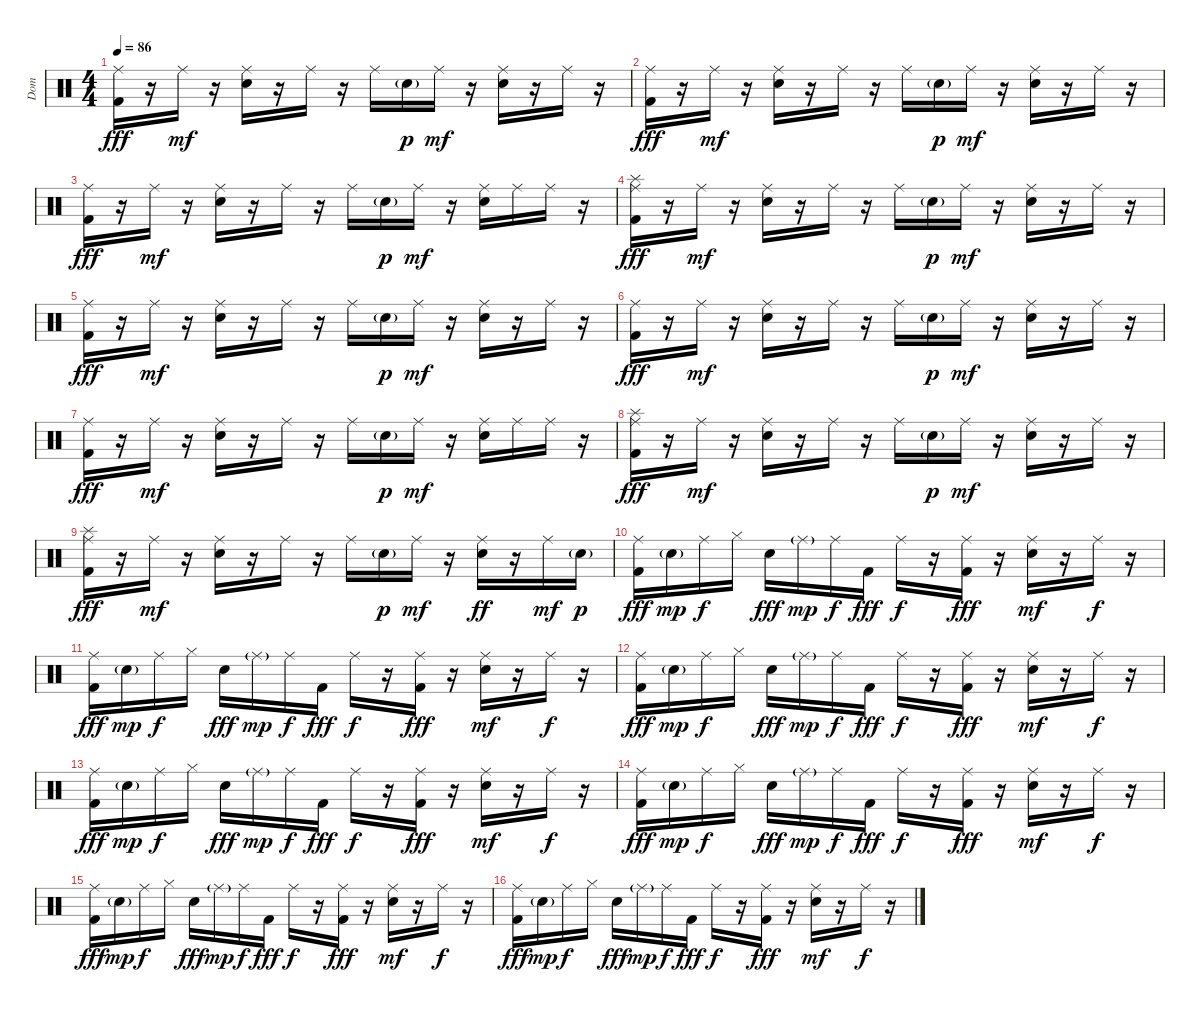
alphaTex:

\track ("Dom" "Dom") {instrument percussion}
\staff {score}
\articulation defaults
\ts (4 4)
\tempo 86
\clef neutral
\ks c
("Ride (middle)" "Kick (hit) 2").16{dy fff} r.16 "Ride (middle)".16{dy mf} r.16 ("Ride (middle)" "Electric Snare (hit)").16 r.16 "Ride (middle)".16 r.16 "Ride (middle)".16 "Electric Snare (hit)"{g}.16{dy p} "Ride (middle)".16{dy mf} r.16 ("Ride (middle)" "Electric Snare (hit)").16 r.16 "Ride (middle)".16 r.16 |
("Ride (middle)" "Kick (hit) 2").16{dy fff} r.16 "Ride (middle)".16{dy mf} r.16 ("Ride (middle)" "Electric Snare (hit)").16 r.16 "Ride (middle)".16 r.16 "Ride (middle)".16 "Electric Snare (hit)"{g}.16{dy p} "Ride (middle)".16{dy mf} r.16 ("Ride (middle)" "Electric Snare (hit)").16 r.16 "Ride (middle)".16 r.16 |
("Ride (middle)" "Kick (hit) 2").16{dy fff} r.16 "Ride (middle)".16{dy mf} r.16 ("Ride (middle)" "Electric Snare (hit)").16 r.16 "Ride (middle)".16 r.16 "Ride (middle)".16 "Electric Snare (hit)"{g}.16{dy p} "Ride (middle)".16{dy mf} r.16 ("Ride (middle)" "Electric Snare (hit)").16 "Ride (middle)".16 "Ride (middle)".16 r.16 |
("Ride (middle)" "Splash (hit)" "Kick (hit) 2").16{dy fff} r.16 "Ride (middle)".16{dy mf} r.16 ("Ride (middle)" "Electric Snare (hit)").16 r.16 "Ride (middle)".16 r.16 "Ride (middle)".16 "Electric Snare (hit)"{g}.16{dy p} "Ride (middle)".16{dy mf} r.16 ("Ride (middle)" "Electric Snare (hit)").16 r.16 "Ride (middle)".16 r.16 |
("Ride (middle)" "Kick (hit) 2").16{dy fff} r.16 "Ride (middle)".16{dy mf} r.16 ("Ride (middle)" "Electric Snare (hit)").16 r.16 "Ride (middle)".16 r.16 "Ride (middle)".16 "Electric Snare (hit)"{g}.16{dy p} "Ride (middle)".16{dy mf} r.16 ("Ride (middle)" "Electric Snare (hit)").16 r.16 "Ride (middle)".16 r.16 |
("Ride (middle)" "Kick (hit) 2").16{dy fff} r.16 "Ride (middle)".16{dy mf} r.16 ("Ride (middle)" "Electric Snare (hit)").16 r.16 "Ride (middle)".16 r.16 "Ride (middle)".16 "Electric Snare (hit)"{g}.16{dy p} "Ride (middle)".16{dy mf} r.16 ("Ride (middle)" "Electric Snare (hit)").16 r.16 "Ride (middle)".16 r.16 |
("Ride (middle)" "Kick (hit) 2").16{dy fff} r.16 "Ride (middle)".16{dy mf} r.16 ("Ride (middle)" "Electric Snare (hit)").16 r.16 "Ride (middle)".16 r.16 "Ride (middle)".16 "Electric Snare (hit)"{g}.16{dy p} "Ride (middle)".16{dy mf} r.16 ("Ride (middle)" "Electric Snare (hit)").16 "Ride (middle)".16 "Ride (middle)".16 r.16 |
("Ride (middle)" "Splash (hit)" "Kick (hit) 2").16{dy fff} r.16 "Ride (middle)".16{dy mf} r.16 ("Ride (middle)" "Electric Snare (hit)").16 r.16 "Ride (middle)".16 r.16 "Ride (middle)".16 "Electric Snare (hit)"{g}.16{dy p} "Ride (middle)".16{dy mf} r.16 ("Ride (middle)" "Electric Snare (hit)").16 r.16 "Ride (middle)".16 r.16 |
("Ride (middle)" "Splash (hit)" "Kick (hit) 2").16{dy fff} r.16 "Ride (middle)".16{dy mf} r.16 ("Ride (middle)" "Electric Snare (hit)").16 r.16 "Ride (middle)".16 r.16 "Ride (middle)".16 "Electric Snare (hit)"{g}.16{dy p} "Ride (middle)".16{dy mf} r.16 ("Ride (middle)" "Electric Snare (hit)").16{dy ff} r.16 "Ride (middle)".16{dy mf} "Electric Snare (hit)"{g}.16{dy p} |
("Ride (middle)" "Kick (hit) 2").16{dy fff} "Electric Snare (hit)"{g}.16{dy mp} "Ride (middle)".16{dy f} "Hi-Hat (closed)".16 "Electric Snare (hit)".16{dy fff} "Ride (middle)"{g}.16{dy mp} "Ride (middle)".16{dy f} "Kick (hit) 2".16{dy fff} "Ride (middle)".16{dy f} r.16 ("Ride (middle)" "Kick (hit) 2").16{dy fff} r.16 ("Ride (middle)" "Electric Snare (hit)").16{dy mf} r.16 "Ride (middle)".16{dy f} r.16 |
("Ride (middle)" "Kick (hit) 2").16{dy fff} "Electric Snare (hit)"{g}.16{dy mp} "Ride (middle)".16{dy f} "Hi-Hat (closed)".16 "Electric Snare (hit)".16{dy fff} "Ride (middle)"{g}.16{dy mp} "Ride (middle)".16{dy f} "Kick (hit) 2".16{dy fff} "Ride (middle)".16{dy f} r.16 ("Ride (middle)" "Kick (hit) 2").16{dy fff} r.16 ("Ride (middle)" "Electric Snare (hit)").16{dy mf} r.16 "Ride (middle)".16{dy f} r.16 |
("Ride (middle)" "Kick (hit) 2").16{dy fff} "Electric Snare (hit)"{g}.16{dy mp} "Ride (middle)".16{dy f} "Hi-Hat (closed)".16 "Electric Snare (hit)".16{dy fff} "Ride (middle)"{g}.16{dy mp} "Ride (middle)".16{dy f} "Kick (hit) 2".16{dy fff} "Ride (middle)".16{dy f} r.16 ("Ride (middle)" "Kick (hit) 2").16{dy fff} r.16 ("Ride (middle)" "Electric Snare (hit)").16{dy mf} r.16 "Ride (middle)".16{dy f} r.16 |
("Ride (middle)" "Kick (hit) 2").16{dy fff} "Electric Snare (hit)"{g}.16{dy mp} "Ride (middle)".16{dy f} "Hi-Hat (closed)".16 "Electric Snare (hit)".16{dy fff} "Ride (middle)"{g}.16{dy mp} "Ride (middle)".16{dy f} "Kick (hit) 2".16{dy fff} "Ride (middle)".16{dy f} r.16 ("Ride (middle)" "Kick (hit) 2").16{dy fff} r.16 ("Ride (middle)" "Electric Snare (hit)").16{dy mf} r.16 "Ride (middle)".16{dy f} r.16 |
("Ride (middle)" "Kick (hit) 2").16{dy fff} "Electric Snare (hit)"{g}.16{dy mp} "Ride (middle)".16{dy f} "Hi-Hat (closed)".16 "Electric Snare (hit)".16{dy fff} "Ride (middle)"{g}.16{dy mp} "Ride (middle)".16{dy f} "Kick (hit) 2".16{dy fff} "Ride (middle)".16{dy f} r.16 ("Ride (middle)" "Kick (hit) 2").16{dy fff} r.16 ("Ride (middle)" "Electric Snare (hit)").16{dy mf} r.16 "Ride (middle)".16{dy f} r.16 |
("Ride (middle)" "Kick (hit) 2").16{dy fff} "Electric Snare (hit)"{g}.16{dy mp} "Ride (middle)".16{dy f} "Hi-Hat (closed)".16 "Electric Snare (hit)".16{dy fff} "Ride (middle)"{g}.16{dy mp} "Ride (middle)".16{dy f} "Kick (hit) 2".16{dy fff} "Ride (middle)".16{dy f} r.16 ("Ride (middle)" "Kick (hit) 2").16{dy fff} r.16 ("Ride (middle)" "Electric Snare (hit)").16{dy mf} r.16 "Ride (middle)".16{dy f} r.16 |
("Ride (middle)" "Kick (hit) 2").16{dy fff} "Electric Snare (hit)"{g}.16{dy mp} "Ride (middle)".16{dy f} "Hi-Hat (closed)".16 "Electric Snare (hit)".16{dy fff} "Ride (middle)"{g}.16{dy mp} "Ride (middle)".16{dy f} "Kick (hit) 2".16{dy fff} "Ride (middle)".16{dy f} r.16 ("Ride (middle)" "Kick (hit) 2").16{dy fff} r.16 ("Ride (middle)" "Electric Snare (hit)").16{dy mf} r.16 "Ride (middle)".16{dy f} r.16
